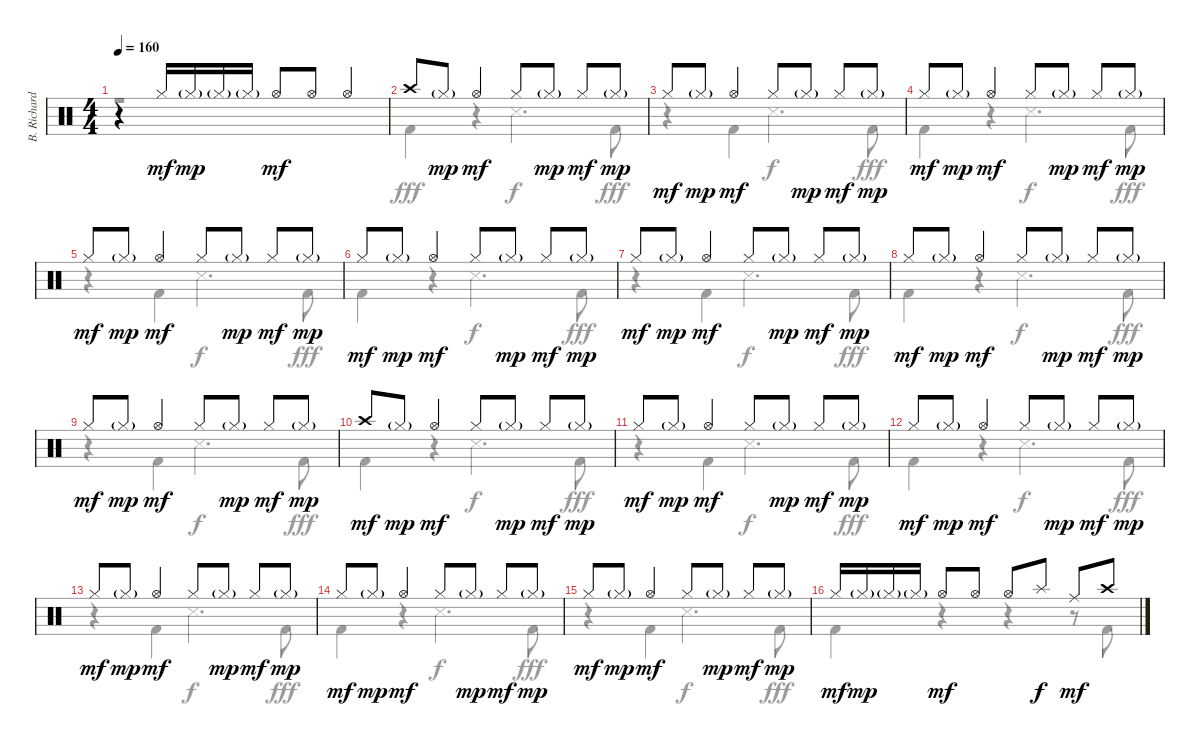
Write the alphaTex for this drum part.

\track ("B. Richardson Drums" "B. Richard") {instrument percussion}
\staff {score}
\articulation defaults
\voice
\ts (4 4)
\tempo 160
\clef neutral
\ks c
r.4{dy mf} "Hi-Hat (closed)".16 "Hi-Hat (closed)"{g}.16{dy mp} "Hi-Hat (closed)"{g}.16 "Hi-Hat (closed)"{g}.16 "Hi-Hat (open)".8{dy mf} "Hi-Hat (open)".8 "Hi-Hat (open)".4 |
"Crash high (hit)".8 "Hi-Hat (closed)"{g}.8{dy mp} "Hi-Hat (open)".4{dy mf} "Hi-Hat (closed)".8 "Hi-Hat (closed)"{g}.8{dy mp} "Hi-Hat (closed)".8{dy mf} "Hi-Hat (closed)"{g}.8{dy mp} |
"Hi-Hat (closed)".8{dy mf} "Hi-Hat (closed)"{g}.8{dy mp} "Hi-Hat (open)".4{dy mf} "Hi-Hat (closed)".8 "Hi-Hat (closed)"{g}.8{dy mp} "Hi-Hat (closed)".8{dy mf} "Hi-Hat (closed)"{g}.8{dy mp} |
"Hi-Hat (closed)".8{dy mf} "Hi-Hat (closed)"{g}.8{dy mp} "Hi-Hat (open)".4{dy mf} "Hi-Hat (closed)".8 "Hi-Hat (closed)"{g}.8{dy mp} "Hi-Hat (closed)".8{dy mf} "Hi-Hat (closed)"{g}.8{dy mp} |
"Hi-Hat (closed)".8{dy mf} "Hi-Hat (closed)"{g}.8{dy mp} "Hi-Hat (open)".4{dy mf} "Hi-Hat (closed)".8 "Hi-Hat (closed)"{g}.8{dy mp} "Hi-Hat (closed)".8{dy mf} "Hi-Hat (closed)"{g}.8{dy mp} |
"Hi-Hat (closed)".8{dy mf} "Hi-Hat (closed)"{g}.8{dy mp} "Hi-Hat (open)".4{dy mf} "Hi-Hat (closed)".8 "Hi-Hat (closed)"{g}.8{dy mp} "Hi-Hat (closed)".8{dy mf} "Hi-Hat (closed)"{g}.8{dy mp} |
"Hi-Hat (closed)".8{dy mf} "Hi-Hat (closed)"{g}.8{dy mp} "Hi-Hat (open)".4{dy mf} "Hi-Hat (closed)".8 "Hi-Hat (closed)"{g}.8{dy mp} "Hi-Hat (closed)".8{dy mf} "Hi-Hat (closed)"{g}.8{dy mp} |
"Hi-Hat (closed)".8{dy mf} "Hi-Hat (closed)"{g}.8{dy mp} "Hi-Hat (open)".4{dy mf} "Hi-Hat (closed)".8 "Hi-Hat (closed)"{g}.8{dy mp} "Hi-Hat (closed)".8{dy mf} "Hi-Hat (closed)"{g}.8{dy mp} |
"Hi-Hat (closed)".8{dy mf} "Hi-Hat (closed)"{g}.8{dy mp} "Hi-Hat (open)".4{dy mf} "Hi-Hat (closed)".8 "Hi-Hat (closed)"{g}.8{dy mp} "Hi-Hat (closed)".8{dy mf} "Hi-Hat (closed)"{g}.8{dy mp} |
"Crash high (hit)".8{dy mf} "Hi-Hat (closed)"{g}.8{dy mp} "Hi-Hat (open)".4{dy mf} "Hi-Hat (closed)".8 "Hi-Hat (closed)"{g}.8{dy mp} "Hi-Hat (closed)".8{dy mf} "Hi-Hat (closed)"{g}.8{dy mp} |
"Hi-Hat (closed)".8{dy mf} "Hi-Hat (closed)"{g}.8{dy mp} "Hi-Hat (open)".4{dy mf} "Hi-Hat (closed)".8 "Hi-Hat (closed)"{g}.8{dy mp} "Hi-Hat (closed)".8{dy mf} "Hi-Hat (closed)"{g}.8{dy mp} |
"Hi-Hat (closed)".8{dy mf} "Hi-Hat (closed)"{g}.8{dy mp} "Hi-Hat (open)".4{dy mf} "Hi-Hat (closed)".8 "Hi-Hat (closed)"{g}.8{dy mp} "Hi-Hat (closed)".8{dy mf} "Hi-Hat (closed)"{g}.8{dy mp} |
"Hi-Hat (closed)".8{dy mf} "Hi-Hat (closed)"{g}.8{dy mp} "Hi-Hat (open)".4{dy mf} "Hi-Hat (closed)".8 "Hi-Hat (closed)"{g}.8{dy mp} "Hi-Hat (closed)".8{dy mf} "Hi-Hat (closed)"{g}.8{dy mp} |
"Hi-Hat (closed)".8{dy mf} "Hi-Hat (closed)"{g}.8{dy mp} "Hi-Hat (open)".4{dy mf} "Hi-Hat (closed)".8 "Hi-Hat (closed)"{g}.8{dy mp} "Hi-Hat (closed)".8{dy mf} "Hi-Hat (closed)"{g}.8{dy mp} |
"Hi-Hat (closed)".8{dy mf} "Hi-Hat (closed)"{g}.8{dy mp} "Hi-Hat (open)".4{dy mf} "Hi-Hat (closed)".8 "Hi-Hat (closed)"{g}.8{dy mp} "Hi-Hat (closed)".8{dy mf} "Hi-Hat (closed)"{g}.8{dy mp} |
"Hi-Hat (closed)".16{dy mf} "Hi-Hat (closed)"{g}.16{dy mp} "Hi-Hat (closed)"{g}.16 "Hi-Hat (closed)"{g}.16 "Hi-Hat (open)".8{dy mf} "Hi-Hat (open)".8 "Hi-Hat (open)".8 "Splash (hit)".8{dy f} "Ride (middle)".8{dy mf} "Crash high (hit)".8
\voice
\clef neutral
\ottava regular
\simile none
\ks c
r.1{dy fff} |
"Kick (hit) 2".4 r.4 "Snare (side stick) 3".4{d dy f} "Kick (hit) 2".8{dy fff} |
r.4 "Kick (hit) 2".4 "Snare (side stick) 3".4{d dy f} "Kick (hit) 2".8{dy fff} |
"Kick (hit) 2".4 r.4 "Snare (side stick) 3".4{d dy f} "Kick (hit) 2".8{dy fff} |
r.4 "Kick (hit) 2".4 "Snare (side stick) 3".4{d dy f} "Kick (hit) 2".8{dy fff} |
"Kick (hit) 2".4 r.4 "Snare (side stick) 3".4{d dy f} "Kick (hit) 2".8{dy fff} |
r.4 "Kick (hit) 2".4 "Snare (side stick) 3".4{d dy f} "Kick (hit) 2".8{dy fff} |
"Kick (hit) 2".4 r.4 "Snare (side stick) 3".4{d dy f} "Kick (hit) 2".8{dy fff} |
r.4 "Kick (hit) 2".4 "Snare (side stick) 3".4{d dy f} "Kick (hit) 2".8{dy fff} |
"Kick (hit) 2".4 r.4 "Snare (side stick) 3".4{d dy f} "Kick (hit) 2".8{dy fff} |
r.4 "Kick (hit) 2".4 "Snare (side stick) 3".4{d dy f} "Kick (hit) 2".8{dy fff} |
"Kick (hit) 2".4 r.4 "Snare (side stick) 3".4{d dy f} "Kick (hit) 2".8{dy fff} |
r.4 "Kick (hit) 2".4 "Snare (side stick) 3".4{d dy f} "Kick (hit) 2".8{dy fff} |
"Kick (hit) 2".4 r.4 "Snare (side stick) 3".4{d dy f} "Kick (hit) 2".8{dy fff} |
r.4 "Kick (hit) 2".4 "Snare (side stick) 3".4{d dy f} "Kick (hit) 2".8{dy fff} |
"Kick (hit) 2".4 r.4 r.4 r.8 "Kick (hit) 2".8
